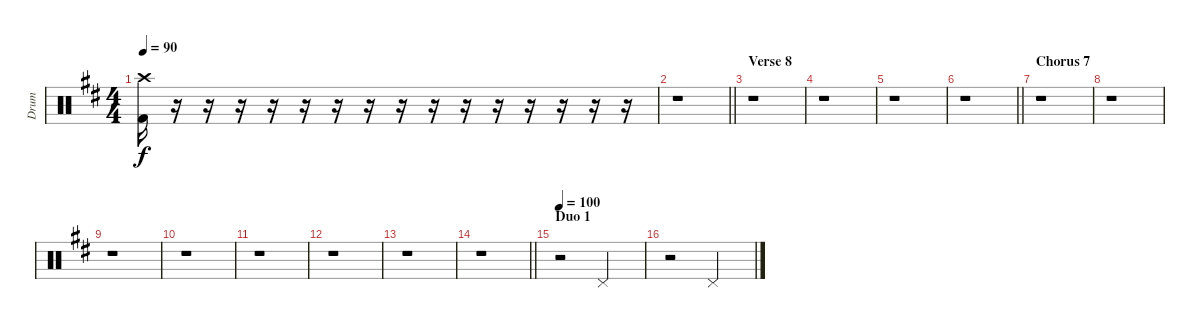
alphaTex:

\track ("Drum" "Drum") {instrument percussion}
\staff {score}
\articulation defaults
\ts (4 4)
\tempo 90
\clef neutral
\ks d
("Kick (hit) 2" "Crash high (hit)").16{dy f} r.16 r.16 r.16 r.16 r.16 r.16 r.16 r.16 r.16 r.16 r.16 r.16 r.16 r.16 r.16 |
\barLineRight lightlight
r.1 |
\section ("" "Verse 8")
r.1 |
r.1 |
r.1 |
\barLineRight lightlight
r.1 |
\section ("" "Chorus 7")
r.1 |
r.1 |
r.1 |
r.1 |
r.1 |
r.1 |
r.1 |
\barLineRight lightlight
r.1 |
\section ("" "Duo 1")
\tempo 100
r.2 "Pedal Hi-Hat (hit)".2 |
r.2 "Pedal Hi-Hat (hit)".2
